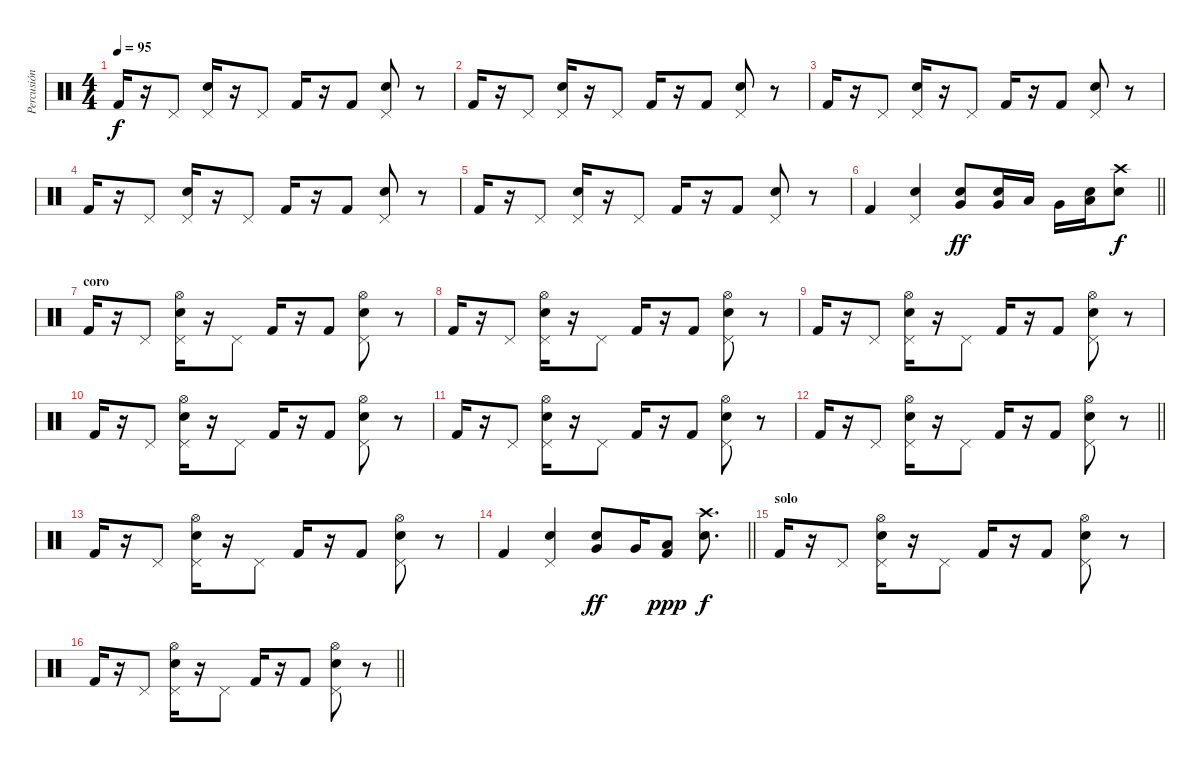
\track ("Percusión" "Percusión") {instrument percussion}
\staff {score}
\articulation defaults
\ts (4 4)
\tempo 95
\clef neutral
\ks c "Kick (hit) 2".16{dy f}
r.16 "Pedal Hi-Hat (hit)".8 ("Snare (hit) 2" "Pedal Hi-Hat (hit)").16 r.16 "Pedal Hi-Hat (hit)".8 "Kick (hit) 2".16 r.16 "Kick (hit) 2".8 ("Snare (hit) 2" "Pedal Hi-Hat (hit)").8 r.8 |
"Kick (hit) 2".16 r.16 "Pedal Hi-Hat (hit)".8 ("Snare (hit) 2" "Pedal Hi-Hat (hit)").16 r.16 "Pedal Hi-Hat (hit)".8 "Kick (hit) 2".16 r.16 "Kick (hit) 2".8 ("Snare (hit) 2" "Pedal Hi-Hat (hit)").8 r.8 |
"Kick (hit) 2".16 r.16 "Pedal Hi-Hat (hit)".8 ("Snare (hit) 2" "Pedal Hi-Hat (hit)").16 r.16 "Pedal Hi-Hat (hit)".8 "Kick (hit) 2".16 r.16 "Kick (hit) 2".8 ("Snare (hit) 2" "Pedal Hi-Hat (hit)").8 r.8 |
"Kick (hit) 2".16 r.16 "Pedal Hi-Hat (hit)".8 ("Snare (hit) 2" "Pedal Hi-Hat (hit)").16 r.16 "Pedal Hi-Hat (hit)".8 "Kick (hit) 2".16 r.16 "Kick (hit) 2".8 ("Snare (hit) 2" "Pedal Hi-Hat (hit)").8 r.8 |
"Kick (hit) 2".16 r.16 "Pedal Hi-Hat (hit)".8 ("Snare (hit) 2" "Pedal Hi-Hat (hit)").16 r.16 "Pedal Hi-Hat (hit)".8 "Kick (hit) 2".16 r.16 "Kick (hit) 2".8 ("Snare (hit) 2" "Pedal Hi-Hat (hit)").8 r.8 |
\barLineRight lightlight "Kick (hit) 2".4
("Snare (hit) 2" "Pedal Hi-Hat (hit)").4 ("Very Low Tom (hit)" "Snare (hit) 2").8{dy ff} ("Very Low Tom (hit)" "Snare (hit) 2").16 "Low Tom (hit)".16 "Very Low Tom (hit)".16 ("Snare (hit) 2" "Low Floor Tom (hit)").16 ("Crash high (hit)" "Snare (hit) 2").8{dy f} |
\section ("" "coro")
"Kick (hit) 2".16 r.16 "Pedal Hi-Hat (hit)".8 ("Snare (hit) 2" "Pedal Hi-Hat (hit)" "Hi-Hat (open)").16 r.16 "Pedal Hi-Hat (hit)".8 "Kick (hit) 2".16 r.16 "Kick (hit) 2".8 ("Snare (hit) 2" "Pedal Hi-Hat (hit)" "Hi-Hat (open)").8 r.8 |
"Kick (hit) 2".16 r.16 "Pedal Hi-Hat (hit)".8 ("Snare (hit) 2" "Pedal Hi-Hat (hit)" "Hi-Hat (open)").16 r.16 "Pedal Hi-Hat (hit)".8 "Kick (hit) 2".16 r.16 "Kick (hit) 2".8 ("Snare (hit) 2" "Pedal Hi-Hat (hit)" "Hi-Hat (open)").8 r.8 |
"Kick (hit) 2".16 r.16 "Pedal Hi-Hat (hit)".8 ("Snare (hit) 2" "Pedal Hi-Hat (hit)" "Hi-Hat (open)").16 r.16 "Pedal Hi-Hat (hit)".8 "Kick (hit) 2".16 r.16 "Kick (hit) 2".8 ("Snare (hit) 2" "Pedal Hi-Hat (hit)" "Hi-Hat (open)").8 r.8 |
"Kick (hit) 2".16 r.16 "Pedal Hi-Hat (hit)".8 ("Snare (hit) 2" "Pedal Hi-Hat (hit)" "Hi-Hat (open)").16 r.16 "Pedal Hi-Hat (hit)".8 "Kick (hit) 2".16 r.16 "Kick (hit) 2".8 ("Snare (hit) 2" "Pedal Hi-Hat (hit)" "Hi-Hat (open)").8 r.8 |
"Kick (hit) 2".16 r.16 "Pedal Hi-Hat (hit)".8 ("Snare (hit) 2" "Pedal Hi-Hat (hit)" "Hi-Hat (open)").16 r.16 "Pedal Hi-Hat (hit)".8 "Kick (hit) 2".16 r.16 "Kick (hit) 2".8 ("Snare (hit) 2" "Pedal Hi-Hat (hit)" "Hi-Hat (open)").8 r.8 |
\barLineRight lightlight "Kick (hit) 2".16
r.16 "Pedal Hi-Hat (hit)".8 ("Snare (hit) 2" "Pedal Hi-Hat (hit)" "Hi-Hat (open)").16 r.16 "Pedal Hi-Hat (hit)".8 "Kick (hit) 2".16 r.16 "Kick (hit) 2".8 ("Snare (hit) 2" "Pedal Hi-Hat (hit)" "Hi-Hat (open)").8 r.8 |
"Kick (hit) 2".16 r.16 "Pedal Hi-Hat (hit)".8 ("Snare (hit) 2" "Pedal Hi-Hat (hit)" "Hi-Hat (open)").16 r.16 "Pedal Hi-Hat (hit)".8 "Kick (hit) 2".16 r.16 "Kick (hit) 2".8 ("Snare (hit) 2" "Pedal Hi-Hat (hit)" "Hi-Hat (open)").8 r.8 |
\barLineRight lightlight "Kick (hit) 2".4
("Snare (hit) 2" "Pedal Hi-Hat (hit)").4 ("Very Low Tom (hit)" "Snare (hit) 2").8{dy ff} "Very Low Tom (hit)".16 ("Low Tom (hit)" "Kick (hit) 2").8{dy ppp} ("Crash high (hit)" "Snare (hit) 2").8{d dy f} |
\section ("" "solo")
"Kick (hit) 2".16 r.16 "Pedal Hi-Hat (hit)".8 ("Snare (hit) 2" "Pedal Hi-Hat (hit)" "Hi-Hat (open)").16 r.16 "Pedal Hi-Hat (hit)".8 "Kick (hit) 2".16 r.16 "Kick (hit) 2".8 ("Snare (hit) 2" "Pedal Hi-Hat (hit)" "Hi-Hat (open)").8 r.8 |
\barLineRight lightlight "Kick (hit) 2".16
r.16 "Pedal Hi-Hat (hit)".8 ("Snare (hit) 2" "Pedal Hi-Hat (hit)" "Hi-Hat (open)").16 r.16 "Pedal Hi-Hat (hit)".8 "Kick (hit) 2".16 r.16 "Kick (hit) 2".8 ("Snare (hit) 2" "Pedal Hi-Hat (hit)" "Hi-Hat (open)").8 r.8
